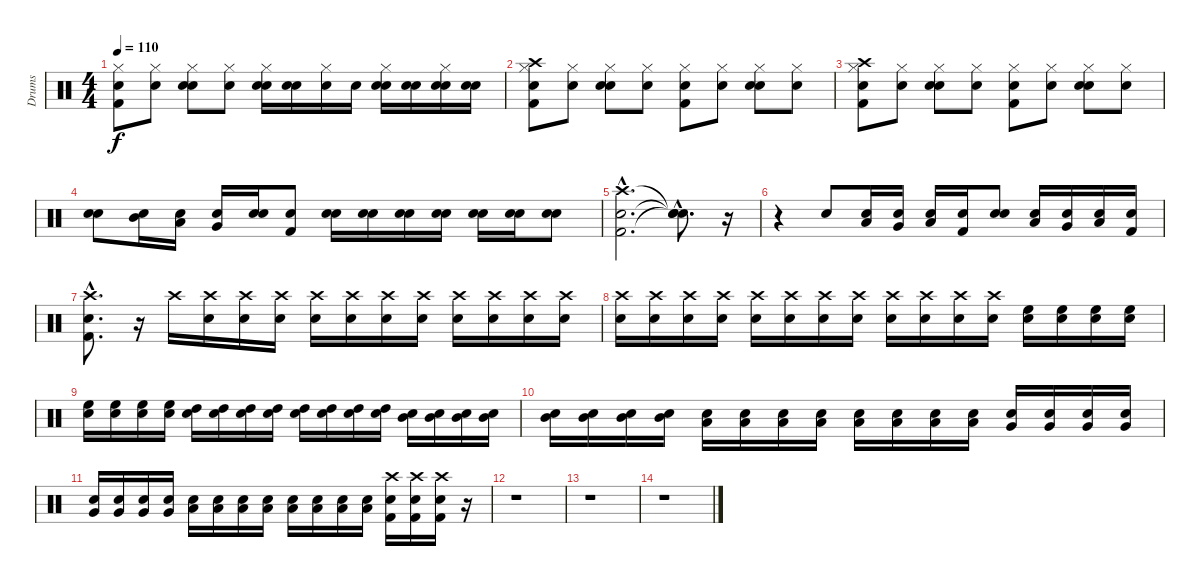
\track ("Drums" "Drums") {instrument percussion}
\staff {score}
\articulation defaults
\ts (4 4)
\tempo 110
\clef neutral
\ks c
("Snare (hit)" "Kick (hit) 2" "Hi-Hat (closed)").8{dy f} ("Snare (hit)" "Hi-Hat (closed)").8 ("Snare (hit)" "Snare (hit) 2" "Hi-Hat (closed)").8 ("Snare (hit)" "Hi-Hat (closed)").8 ("Snare (hit)" "Snare (hit) 2" "Hi-Hat (closed)").16 ("Snare (hit)" "Snare (hit) 2").16 ("Snare (hit)" "Hi-Hat (closed)").16 "Snare (hit) 2".16 ("Snare (hit)" "Snare (hit) 2" "Hi-Hat (closed)").16 ("Snare (hit)" "Snare (hit) 2").16 ("Snare (hit)" "Snare (hit) 2" "Hi-Hat (closed)").16 ("Snare (hit)" "Snare (hit) 2").16 |
("Snare (hit)" "Kick (hit) 2" "Hi-Hat (closed)" "Crash high (hit)").8 ("Snare (hit)" "Hi-Hat (closed)").8 ("Snare (hit)" "Snare (hit) 2" "Hi-Hat (closed)").8 ("Snare (hit)" "Hi-Hat (closed)").8 ("Snare (hit)" "Kick (hit) 2" "Hi-Hat (closed)").8 ("Snare (hit)" "Hi-Hat (closed)").8 ("Snare (hit)" "Snare (hit) 2" "Hi-Hat (closed)").8 ("Snare (hit)" "Hi-Hat (closed)").8 |
("Snare (hit)" "Kick (hit) 2" "Hi-Hat (closed)" "Crash high (hit)").8 ("Snare (hit)" "Hi-Hat (closed)").8 ("Snare (hit)" "Snare (hit) 2" "Hi-Hat (closed)").8 ("Snare (hit)" "Hi-Hat (closed)").8 ("Snare (hit)" "Kick (hit) 2" "Hi-Hat (closed)").8 ("Snare (hit)" "Hi-Hat (closed)").8 ("Snare (hit)" "Snare (hit) 2" "Hi-Hat (closed)").8 ("Snare (hit)" "Hi-Hat (closed)").8 |
("Snare (hit)" "Snare (hit) 2").8 ("Snare (hit)" "Mid Tom (hit)").16 ("Snare (hit)" "Low Tom (hit)").16 ("Snare (hit)" "Very Low Tom (hit)").16 ("Snare (hit)" "Snare (hit) 2").16 ("Snare (hit)" "Kick (hit) 2").8 ("Snare (hit)" "Snare (hit) 2").16 ("Snare (hit)" "Snare (hit) 2").16 ("Snare (hit)" "Snare (hit) 2").16 ("Snare (hit)" "Snare (hit) 2").16 ("Snare (hit)" "Snare (hit) 2").16 ("Snare (hit)" "Snare (hit) 2").16 ("Snare (hit)" "Snare (hit) 2").8 |
("Snare (hit)"{hac} "Kick (hit) 2"{hac} "Crash high (hit)"{hac}).2{d} ("Snare (hit)"{hac t} "Snare (hit)"{hac t} "Snare (hit)"{hac t}).8{d} r.16 |
r.4 "Snare (hit) 2".8 ("Snare (hit)" "Low Tom (hit)").16 ("Snare (hit)" "Very Low Tom (hit)").16 ("Snare (hit)" "Low Floor Tom (hit)").16 ("Snare (hit)" "Kick (hit) 2").16 ("Snare (hit)" "Snare (hit) 2").8 ("Snare (hit)" "Low Tom (hit)").16 ("Snare (hit)" "Very Low Tom (hit)").16 ("Snare (hit)" "Low Floor Tom (hit)").16 ("Snare (hit)" "Kick (hit) 2").16 |
("Snare (hit)"{hac} "Kick (hit) 2"{hac} "Crash high (hit)"{hac}).8{d} r.16 "Crash high (hit)".16 ("Snare (hit)" "Crash high (hit)").16 ("Snare (hit)" "Crash high (hit)").16 ("Snare (hit)" "Crash high (hit)").16 ("Snare (hit)" "Crash high (hit)").16 ("Snare (hit)" "Crash high (hit)").16 ("Snare (hit)" "Crash high (hit)").16 ("Snare (hit)" "Crash high (hit)").16 ("Snare (hit)" "Crash high (hit)").16 ("Snare (hit)" "Crash high (hit)").16 ("Snare (hit)" "Crash high (hit)").16 ("Snare (hit)" "Crash high (hit)").16 |
("Snare (hit)" "Crash high (hit)").16 ("Snare (hit)" "Crash high (hit)").16 ("Snare (hit)" "Crash high (hit)").16 ("Snare (hit)" "Crash high (hit)").16 ("Snare (hit)" "Crash high (hit)").16 ("Snare (hit)" "Crash high (hit)").16 ("Snare (hit)" "Crash high (hit)").16 ("Snare (hit)" "Crash high (hit)").16 ("Snare (hit)" "Crash high (hit)").16 ("Snare (hit)" "Crash high (hit)").16 ("Snare (hit)" "Crash high (hit)").16 ("Snare (hit)" "Crash high (hit)").16 ("Snare (hit)" "High Floor Tom (hit)").16 ("Snare (hit)" "High Floor Tom (hit)").16 ("Snare (hit)" "High Floor Tom (hit)").16 ("Snare (hit)" "High Floor Tom (hit)").16 |
("Snare (hit)" "High Floor Tom (hit)").16 ("Snare (hit)" "High Floor Tom (hit)").16 ("Snare (hit)" "High Floor Tom (hit)").16 ("Snare (hit)" "High Floor Tom (hit)").16 ("Snare (hit)" "High Tom (hit)").16 ("Snare (hit)" "High Tom (hit)").16 ("Snare (hit)" "High Tom (hit)").16 ("Snare (hit)" "High Tom (hit)").16 ("Snare (hit)" "High Tom (hit)").16 ("Snare (hit)" "High Tom (hit)").16 ("Snare (hit)" "High Tom (hit)").16 ("Snare (hit)" "High Tom (hit)").16 ("Snare (hit)" "Mid Tom (hit)").16 ("Snare (hit)" "Mid Tom (hit)").16 ("Snare (hit)" "Mid Tom (hit)").16 ("Snare (hit)" "Mid Tom (hit)").16 |
("Snare (hit)" "Mid Tom (hit)").16 ("Snare (hit)" "Mid Tom (hit)").16 ("Snare (hit)" "Mid Tom (hit)").16 ("Snare (hit)" "Mid Tom (hit)").16 ("Snare (hit)" "Low Tom (hit)").16 ("Snare (hit)" "Low Tom (hit)").16 ("Snare (hit)" "Low Tom (hit)").16 ("Snare (hit)" "Low Tom (hit)").16 ("Snare (hit)" "Low Tom (hit)").16 ("Snare (hit)" "Low Tom (hit)").16 ("Snare (hit)" "Low Tom (hit)").16 ("Snare (hit)" "Low Tom (hit)").16 ("Snare (hit)" "Very Low Tom (hit)").16 ("Snare (hit)" "Very Low Tom (hit)").16 ("Snare (hit)" "Very Low Tom (hit)").16 ("Snare (hit)" "Very Low Tom (hit)").16 |
("Snare (hit)" "Very Low Tom (hit)").16 ("Snare (hit)" "Very Low Tom (hit)").16 ("Snare (hit)" "Very Low Tom (hit)").16 ("Snare (hit)" "Very Low Tom (hit)").16 ("Snare (hit)" "Low Floor Tom (hit)").16 ("Snare (hit)" "Low Floor Tom (hit)").16 ("Snare (hit)" "Low Floor Tom (hit)").16 ("Snare (hit)" "Low Floor Tom (hit)").16 ("Snare (hit)" "Low Floor Tom (hit)").16 ("Snare (hit)" "Low Floor Tom (hit)").16 ("Snare (hit)" "Low Floor Tom (hit)").16 ("Snare (hit)" "Low Floor Tom (hit)").16 ("Snare (hit)" "Kick (hit) 2" "Crash high (hit)").16 ("Snare (hit)" "Kick (hit) 2" "Crash high (hit)").16 ("Snare (hit)" "Kick (hit) 2" "Crash high (hit)").16 r.16 |
r.1 |
r.1 |
r.1
